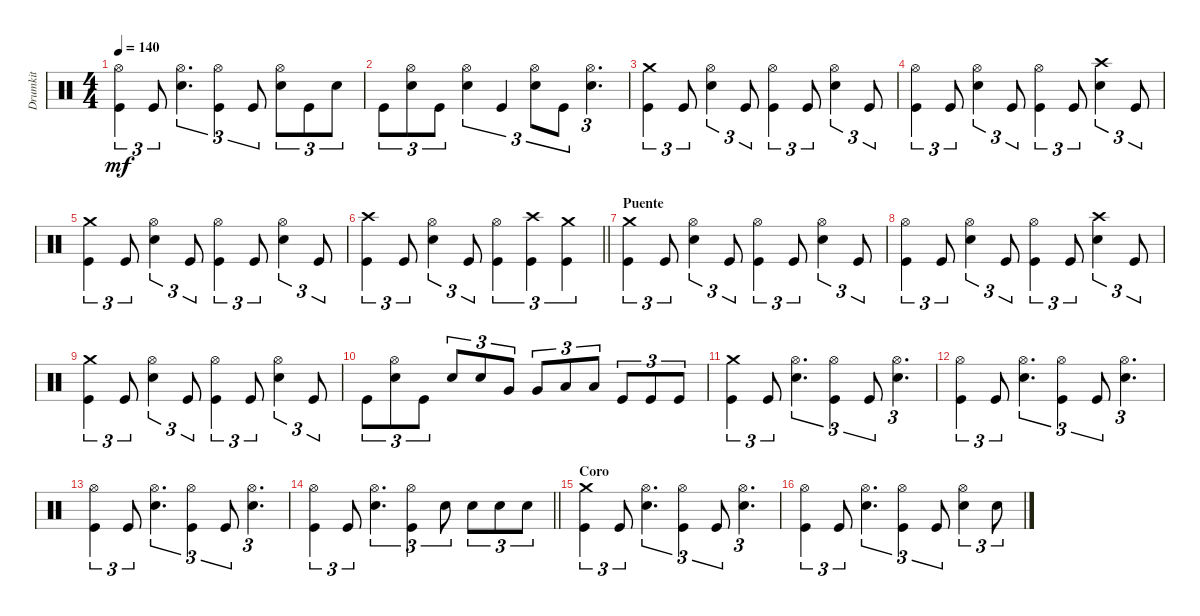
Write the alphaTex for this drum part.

\track ("Drumkit" "Drumkit") {instrument percussion}
\staff {score}
\articulation defaults
\ts (4 4)
\tempo 140
\clef neutral
\ks c
("Kick (hit)" "Hi-Hat (open)").4{tu (3 2) dy mf} "Kick (hit)".8{tu (3 2)} ("Snare (hit) 2" "Hi-Hat (open)").4{d tu (3 2)} ("Kick (hit)" "Hi-Hat (open)").4{tu (3 2)} "Kick (hit)".8{tu (3 2)} ("Snare (hit) 2" "Hi-Hat (open)").8{tu (3 2)} "Kick (hit)".8{tu (3 2)} "Snare (hit) 2".8{tu (3 2)} |
"Kick (hit)".8{tu (3 2)} ("Snare (hit) 2" "Hi-Hat (open)").8{tu (3 2)} "Kick (hit)".8{tu (3 2)} ("Snare (hit) 2" "Hi-Hat (open)").4{tu (3 2)} "Kick (hit)".4{tu (3 2)} ("Snare (hit) 2" "Hi-Hat (open)").8{tu (3 2)} "Kick (hit)".8{tu (3 2)} ("Snare (hit) 2" "Hi-Hat (open)").4{d tu (3 2)} |
("Crash medium (hit)" "Kick (hit)").4{tu (3 2)} "Kick (hit)".8{tu (3 2)} ("Snare (hit) 2" "Hi-Hat (open)").4{tu (3 2)} "Kick (hit)".8{tu (3 2)} ("Kick (hit)" "Hi-Hat (open)").4{tu (3 2)} "Kick (hit)".8{tu (3 2)} ("Snare (hit) 2" "Hi-Hat (open)").4{tu (3 2)} "Kick (hit)".8{tu (3 2)} |
("Kick (hit)" "Hi-Hat (open)").4{tu (3 2)} "Kick (hit)".8{tu (3 2)} ("Snare (hit) 2" "Hi-Hat (open)").4{tu (3 2)} "Kick (hit)".8{tu (3 2)} ("Kick (hit)" "Hi-Hat (open)").4{tu (3 2)} "Kick (hit)".8{tu (3 2)} ("Snare (hit) 2" "Crash high (hit)").4{tu (3 2)} "Kick (hit)".8{tu (3 2)} |
("Kick (hit)" "Crash medium (hit)").4{tu (3 2)} "Kick (hit)".8{tu (3 2)} ("Snare (hit) 2" "Hi-Hat (open)").4{tu (3 2)} "Kick (hit)".8{tu (3 2)} ("Kick (hit)" "Hi-Hat (open)").4{tu (3 2)} "Kick (hit)".8{tu (3 2)} ("Snare (hit) 2" "Hi-Hat (open)").4{tu (3 2)} "Kick (hit)".8{tu (3 2)} |
\barLineRight lightlight
("Kick (hit)" "Crash high (hit)").4{tu (3 2)} "Kick (hit)".8{tu (3 2)} ("Snare (hit) 2" "Hi-Hat (open)").4{tu (3 2)} "Kick (hit)".8{tu (3 2)} ("Kick (hit)" "Hi-Hat (open)").4{tu (3 2)} ("Kick (hit)" "Crash high (hit)").4{tu (3 2)} ("Kick (hit)" "Crash medium (hit)").4{tu (3 2)} |
\section ("" "Puente")
("Crash medium (hit)" "Kick (hit)").4{tu (3 2)} "Kick (hit)".8{tu (3 2)} ("Snare (hit) 2" "Hi-Hat (open)").4{tu (3 2)} "Kick (hit)".8{tu (3 2)} ("Kick (hit)" "Hi-Hat (open)").4{tu (3 2)} "Kick (hit)".8{tu (3 2)} ("Snare (hit) 2" "Hi-Hat (open)").4{tu (3 2)} "Kick (hit)".8{tu (3 2)} |
("Kick (hit)" "Hi-Hat (open)").4{tu (3 2)} "Kick (hit)".8{tu (3 2)} ("Snare (hit) 2" "Hi-Hat (open)").4{tu (3 2)} "Kick (hit)".8{tu (3 2)} ("Kick (hit)" "Hi-Hat (open)").4{tu (3 2)} "Kick (hit)".8{tu (3 2)} ("Snare (hit) 2" "Crash high (hit)").4{tu (3 2)} "Kick (hit)".8{tu (3 2)} |
("Kick (hit)" "Crash medium (hit)").4{tu (3 2)} "Kick (hit)".8{tu (3 2)} ("Snare (hit) 2" "Hi-Hat (open)").4{tu (3 2)} "Kick (hit)".8{tu (3 2)} ("Kick (hit)" "Hi-Hat (open)").4{tu (3 2)} "Kick (hit)".8{tu (3 2)} ("Snare (hit) 2" "Hi-Hat (open)").4{tu (3 2)} "Kick (hit)".8{tu (3 2)} |
"Kick (hit)".8{tu (3 2)} ("Snare (hit) 2" "Hi-Hat (open)").8{tu (3 2)} "Kick (hit)".8{tu (3 2)} "Snare (hit) 2".8{tu (3 2)} "Snare (hit) 2".8{tu (3 2)} "Very Low Tom (hit)".8{tu (3 2)} "Very Low Tom (hit)".8{tu (3 2)} "Low Floor Tom (hit)".8{tu (3 2)} "Low Floor Tom (hit)".8{tu (3 2)} "Kick (hit)".8{tu (3 2)} "Kick (hit)".8{tu (3 2)} "Kick (hit)".8{tu (3 2)} |
("Crash medium (hit)" "Kick (hit)").4{tu (3 2)} "Kick (hit)".8{tu (3 2)} ("Snare (hit) 2" "Hi-Hat (open)").4{d tu (3 2)} ("Kick (hit)" "Hi-Hat (open)").4{tu (3 2)} "Kick (hit)".8{tu (3 2)} ("Snare (hit) 2" "Hi-Hat (open)").4{d tu (3 2)} |
("Kick (hit)" "Hi-Hat (open)").4{tu (3 2)} "Kick (hit)".8{tu (3 2)} ("Snare (hit) 2" "Hi-Hat (open)").4{d tu (3 2)} ("Kick (hit)" "Hi-Hat (open)").4{tu (3 2)} "Kick (hit)".8{tu (3 2)} ("Snare (hit) 2" "Hi-Hat (open)").4{d tu (3 2)} |
("Kick (hit)" "Hi-Hat (open)").4{tu (3 2)} "Kick (hit)".8{tu (3 2)} ("Snare (hit) 2" "Hi-Hat (open)").4{d tu (3 2)} ("Kick (hit)" "Hi-Hat (open)").4{tu (3 2)} "Kick (hit)".8{tu (3 2)} ("Snare (hit) 2" "Hi-Hat (open)").4{d tu (3 2)} |
\barLineRight lightlight
("Kick (hit)" "Hi-Hat (open)").4{tu (3 2)} "Kick (hit)".8{tu (3 2)} ("Snare (hit) 2" "Hi-Hat (open)").4{d tu (3 2)} ("Kick (hit)" "Hi-Hat (open)").4{tu (3 2)} "Snare (hit) 2".8{tu (3 2)} "Snare (hit) 2".8{tu (3 2)} "Snare (hit) 2".8{tu (3 2)} "Snare (hit) 2".8{tu (3 2)} |
\section ("" "Coro")
("Crash medium (hit)" "Kick (hit)").4{tu (3 2)} "Kick (hit)".8{tu (3 2)} ("Snare (hit) 2" "Hi-Hat (open)").4{d tu (3 2)} ("Kick (hit)" "Hi-Hat (open)").4{tu (3 2)} "Kick (hit)".8{tu (3 2)} ("Snare (hit) 2" "Hi-Hat (open)").4{d tu (3 2)} |
("Kick (hit)" "Hi-Hat (open)").4{tu (3 2)} "Kick (hit)".8{tu (3 2)} ("Snare (hit) 2" "Hi-Hat (open)").4{d tu (3 2)} ("Kick (hit)" "Hi-Hat (open)").4{tu (3 2)} "Kick (hit)".8{tu (3 2)} ("Snare (hit) 2" "Hi-Hat (open)").4{tu (3 2)} "Snare (hit) 2".8{tu (3 2)}
